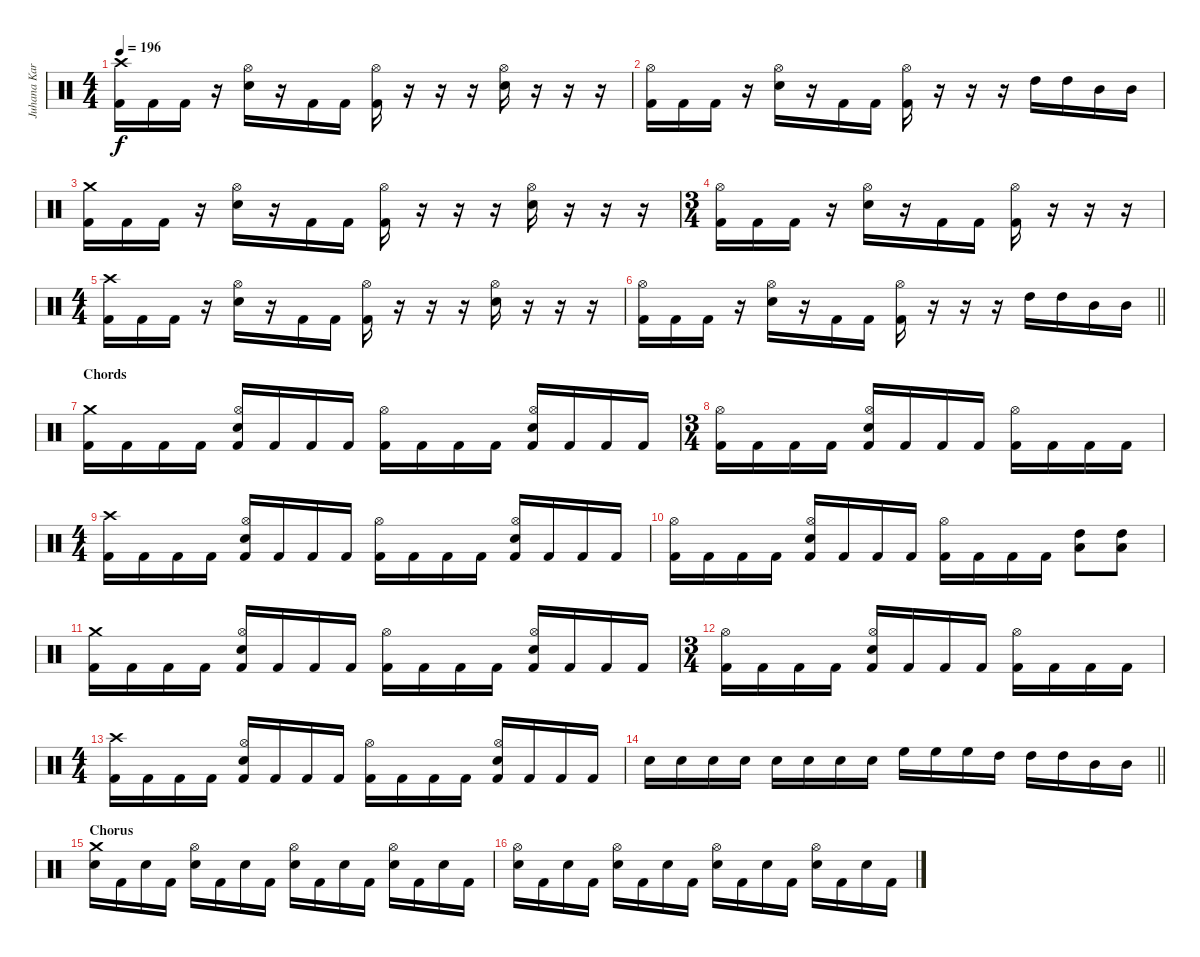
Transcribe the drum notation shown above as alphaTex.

\track ("Juhana Karlsson " "Juhana Kar") {instrument percussion}
\staff {score}
\articulation defaults
\ts (4 4)
\tempo 196
\clef neutral
\ks c
("Crash high (hit)" "Kick (hit) 2").16{dy f} "Kick (hit) 2".16 "Kick (hit) 2".16 r.16 ("Hi-Hat (open)" "Electric Snare (hit)").16 r.16 "Kick (hit) 2".16 "Kick (hit) 2".16 ("Hi-Hat (open)" "Kick (hit) 2").16 r.16 r.16 r.16 ("Hi-Hat (open)" "Electric Snare (hit)").16 r.16 r.16 r.16 |
("Hi-Hat (open)" "Kick (hit) 2").16 "Kick (hit) 2".16 "Kick (hit) 2".16 r.16 ("Hi-Hat (open)" "Electric Snare (hit)").16 r.16 "Kick (hit) 2".16 "Kick (hit) 2".16 ("Hi-Hat (open)" "Kick (hit) 2").16 r.16 r.16 r.16 "High Tom (hit)".16 "High Tom (hit)".16 "Mid Tom (hit)".16 "Mid Tom (hit)".16 |
("Crash medium (hit)" "Kick (hit) 2").16 "Kick (hit) 2".16 "Kick (hit) 2".16 r.16 ("Hi-Hat (open)" "Electric Snare (hit)").16 r.16 "Kick (hit) 2".16 "Kick (hit) 2".16 ("Hi-Hat (open)" "Kick (hit) 2").16 r.16 r.16 r.16 ("Hi-Hat (open)" "Electric Snare (hit)").16 r.16 r.16 r.16 |
\ts (3 4)
("Hi-Hat (open)" "Kick (hit) 2").16 "Kick (hit) 2".16 "Kick (hit) 2".16 r.16 ("Hi-Hat (open)" "Electric Snare (hit)").16 r.16 "Kick (hit) 2".16 "Kick (hit) 2".16 ("Hi-Hat (open)" "Kick (hit) 2").16 r.16 r.16 r.16 |
\ts (4 4)
("Crash high (hit)" "Kick (hit) 2").16 "Kick (hit) 2".16 "Kick (hit) 2".16 r.16 ("Hi-Hat (open)" "Electric Snare (hit)").16 r.16 "Kick (hit) 2".16 "Kick (hit) 2".16 ("Hi-Hat (open)" "Kick (hit) 2").16 r.16 r.16 r.16 ("Hi-Hat (open)" "Electric Snare (hit)").16 r.16 r.16 r.16 |
\barLineRight lightlight
("Hi-Hat (open)" "Kick (hit) 2").16 "Kick (hit) 2".16 "Kick (hit) 2".16 r.16 ("Hi-Hat (open)" "Electric Snare (hit)").16 r.16 "Kick (hit) 2".16 "Kick (hit) 2".16 ("Hi-Hat (open)" "Kick (hit) 2").16 r.16 r.16 r.16 "High Tom (hit)".16 "High Tom (hit)".16 "Mid Tom (hit)".16 "Mid Tom (hit)".16 |
\section ("" "Chords")
("Crash medium (hit)" "Kick (hit) 2").16 "Kick (hit) 2".16 "Kick (hit) 2".16 "Kick (hit) 2".16 ("Hi-Hat (open)" "Electric Snare (hit)" "Kick (hit) 2").16 "Kick (hit) 2".16 "Kick (hit) 2".16 "Kick (hit) 2".16 ("Hi-Hat (open)" "Kick (hit) 2").16 "Kick (hit) 2".16 "Kick (hit) 2".16 "Kick (hit) 2".16 ("Hi-Hat (open)" "Electric Snare (hit)" "Kick (hit) 2").16 "Kick (hit) 2".16 "Kick (hit) 2".16 "Kick (hit) 2".16 |
\ts (3 4)
("Hi-Hat (open)" "Kick (hit) 2").16 "Kick (hit) 2".16 "Kick (hit) 2".16 "Kick (hit) 2".16 ("Hi-Hat (open)" "Electric Snare (hit)" "Kick (hit) 2").16 "Kick (hit) 2".16 "Kick (hit) 2".16 "Kick (hit) 2".16 ("Hi-Hat (open)" "Kick (hit) 2").16 "Kick (hit) 2".16 "Kick (hit) 2".16 "Kick (hit) 2".16 |
\ts (4 4)
("Crash high (hit)" "Kick (hit) 2").16 "Kick (hit) 2".16 "Kick (hit) 2".16 "Kick (hit) 2".16 ("Hi-Hat (open)" "Electric Snare (hit)" "Kick (hit) 2").16 "Kick (hit) 2".16 "Kick (hit) 2".16 "Kick (hit) 2".16 ("Hi-Hat (open)" "Kick (hit) 2").16 "Kick (hit) 2".16 "Kick (hit) 2".16 "Kick (hit) 2".16 ("Hi-Hat (open)" "Electric Snare (hit)" "Kick (hit) 2").16 "Kick (hit) 2".16 "Kick (hit) 2".16 "Kick (hit) 2".16 |
("Hi-Hat (open)" "Kick (hit) 2").16 "Kick (hit) 2".16 "Kick (hit) 2".16 "Kick (hit) 2".16 ("Hi-Hat (open)" "Electric Snare (hit)" "Kick (hit) 2").16 "Kick (hit) 2".16 "Kick (hit) 2".16 "Kick (hit) 2".16 ("Hi-Hat (open)" "Kick (hit) 2").16 "Kick (hit) 2".16 "Kick (hit) 2".16 "Kick (hit) 2".16 ("High Tom (hit)" "Low Tom (hit)").8 ("High Tom (hit)" "Low Tom (hit)").8 |
("Crash medium (hit)" "Kick (hit) 2").16 "Kick (hit) 2".16 "Kick (hit) 2".16 "Kick (hit) 2".16 ("Hi-Hat (open)" "Electric Snare (hit)" "Kick (hit) 2").16 "Kick (hit) 2".16 "Kick (hit) 2".16 "Kick (hit) 2".16 ("Hi-Hat (open)" "Kick (hit) 2").16 "Kick (hit) 2".16 "Kick (hit) 2".16 "Kick (hit) 2".16 ("Hi-Hat (open)" "Electric Snare (hit)" "Kick (hit) 2").16 "Kick (hit) 2".16 "Kick (hit) 2".16 "Kick (hit) 2".16 |
\ts (3 4)
("Hi-Hat (open)" "Kick (hit) 2").16 "Kick (hit) 2".16 "Kick (hit) 2".16 "Kick (hit) 2".16 ("Hi-Hat (open)" "Electric Snare (hit)" "Kick (hit) 2").16 "Kick (hit) 2".16 "Kick (hit) 2".16 "Kick (hit) 2".16 ("Hi-Hat (open)" "Kick (hit) 2").16 "Kick (hit) 2".16 "Kick (hit) 2".16 "Kick (hit) 2".16 |
\ts (4 4)
("Crash high (hit)" "Kick (hit) 2").16 "Kick (hit) 2".16 "Kick (hit) 2".16 "Kick (hit) 2".16 ("Hi-Hat (open)" "Electric Snare (hit)" "Kick (hit) 2").16 "Kick (hit) 2".16 "Kick (hit) 2".16 "Kick (hit) 2".16 ("Hi-Hat (open)" "Kick (hit) 2").16 "Kick (hit) 2".16 "Kick (hit) 2".16 "Kick (hit) 2".16 ("Hi-Hat (open)" "Electric Snare (hit)" "Kick (hit) 2").16 "Kick (hit) 2".16 "Kick (hit) 2".16 "Kick (hit) 2".16 |
\barLineRight lightlight "Electric Snare (hit)".16 "Electric Snare (hit)".16 "Electric Snare (hit)".16 "Electric Snare (hit)".16 "Electric Snare (hit)".16 "Electric Snare (hit)".16 "Electric Snare (hit)".16 "Electric Snare (hit)".16 "High Floor Tom (hit)".16 "High Floor Tom (hit)".16 "High Floor Tom (hit)".16 "High Tom (hit)".16 "High Tom (hit)".16 "High Tom (hit)".16 "Mid Tom (hit)".16 "Mid Tom (hit)".16
|
\section ("" "Chorus")
("Crash medium (hit)" "Electric Snare (hit)").16 "Kick (hit) 2".16 "Electric Snare (hit)".16 "Kick (hit) 2".16 ("Hi-Hat (open)" "Electric Snare (hit)").16 "Kick (hit) 2".16 "Electric Snare (hit)".16 "Kick (hit) 2".16 ("Hi-Hat (open)" "Electric Snare (hit)").16 "Kick (hit) 2".16 "Electric Snare (hit)".16 "Kick (hit) 2".16 ("Hi-Hat (open)" "Electric Snare (hit)").16 "Kick (hit) 2".16 "Electric Snare (hit)".16 "Kick (hit) 2".16 |
("Hi-Hat (open)" "Electric Snare (hit)").16 "Kick (hit) 2".16 "Electric Snare (hit)".16 "Kick (hit) 2".16 ("Hi-Hat (open)" "Electric Snare (hit)").16 "Kick (hit) 2".16 "Electric Snare (hit)".16 "Kick (hit) 2".16 ("Hi-Hat (open)" "Electric Snare (hit)").16 "Kick (hit) 2".16 "Electric Snare (hit)".16 "Kick (hit) 2".16 ("Hi-Hat (open)" "Electric Snare (hit)").16 "Kick (hit) 2".16 "Electric Snare (hit)".16 "Kick (hit) 2".16
